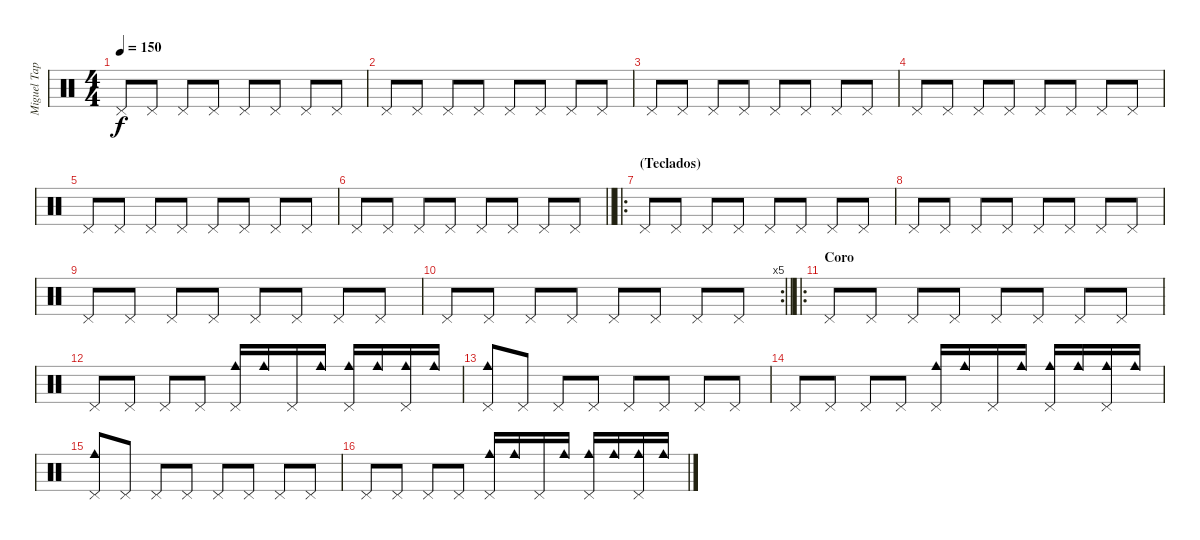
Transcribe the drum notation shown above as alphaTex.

\track ("Miguel Tapia" "Miguel Tap") {instrument percussion}
\staff {score}
\articulation defaults
\ts (4 4)
\tempo 150
\clef neutral
\ks c "Pedal Hi-Hat (hit)".8{dy f} "Pedal Hi-Hat (hit)".8 "Pedal Hi-Hat (hit)".8 "Pedal Hi-Hat (hit)".8 "Pedal Hi-Hat (hit)".8 "Pedal Hi-Hat (hit)".8 "Pedal Hi-Hat (hit)".8 "Pedal Hi-Hat (hit)".8
|
"Pedal Hi-Hat (hit)".8 "Pedal Hi-Hat (hit)".8 "Pedal Hi-Hat (hit)".8 "Pedal Hi-Hat (hit)".8 "Pedal Hi-Hat (hit)".8 "Pedal Hi-Hat (hit)".8 "Pedal Hi-Hat (hit)".8 "Pedal Hi-Hat (hit)".8 |
"Pedal Hi-Hat (hit)".8 "Pedal Hi-Hat (hit)".8 "Pedal Hi-Hat (hit)".8 "Pedal Hi-Hat (hit)".8 "Pedal Hi-Hat (hit)".8 "Pedal Hi-Hat (hit)".8 "Pedal Hi-Hat (hit)".8 "Pedal Hi-Hat (hit)".8 |
"Pedal Hi-Hat (hit)".8 "Pedal Hi-Hat (hit)".8 "Pedal Hi-Hat (hit)".8 "Pedal Hi-Hat (hit)".8 "Pedal Hi-Hat (hit)".8 "Pedal Hi-Hat (hit)".8 "Pedal Hi-Hat (hit)".8 "Pedal Hi-Hat (hit)".8 |
"Pedal Hi-Hat (hit)".8 "Pedal Hi-Hat (hit)".8 "Pedal Hi-Hat (hit)".8 "Pedal Hi-Hat (hit)".8 "Pedal Hi-Hat (hit)".8 "Pedal Hi-Hat (hit)".8 "Pedal Hi-Hat (hit)".8 "Pedal Hi-Hat (hit)".8 |
\barLineRight lightlight "Pedal Hi-Hat (hit)".8 "Pedal Hi-Hat (hit)".8 "Pedal Hi-Hat (hit)".8 "Pedal Hi-Hat (hit)".8 "Pedal Hi-Hat (hit)".8 "Pedal Hi-Hat (hit)".8 "Pedal Hi-Hat (hit)".8 "Pedal Hi-Hat (hit)".8
|
\ro
\section ("" "(Teclados)")
"Pedal Hi-Hat (hit)".8 "Pedal Hi-Hat (hit)".8 "Pedal Hi-Hat (hit)".8 "Pedal Hi-Hat (hit)".8 "Pedal Hi-Hat (hit)".8 "Pedal Hi-Hat (hit)".8 "Pedal Hi-Hat (hit)".8 "Pedal Hi-Hat (hit)".8 |
"Pedal Hi-Hat (hit)".8 "Pedal Hi-Hat (hit)".8 "Pedal Hi-Hat (hit)".8 "Pedal Hi-Hat (hit)".8 "Pedal Hi-Hat (hit)".8 "Pedal Hi-Hat (hit)".8 "Pedal Hi-Hat (hit)".8 "Pedal Hi-Hat (hit)".8 |
"Pedal Hi-Hat (hit)".8 "Pedal Hi-Hat (hit)".8 "Pedal Hi-Hat (hit)".8 "Pedal Hi-Hat (hit)".8 "Pedal Hi-Hat (hit)".8 "Pedal Hi-Hat (hit)".8 "Pedal Hi-Hat (hit)".8 "Pedal Hi-Hat (hit)".8 |
\rc 5
\barLineRight lightlight "Pedal Hi-Hat (hit)".8 "Pedal Hi-Hat (hit)".8 "Pedal Hi-Hat (hit)".8 "Pedal Hi-Hat (hit)".8 "Pedal Hi-Hat (hit)".8 "Pedal Hi-Hat (hit)".8 "Pedal Hi-Hat (hit)".8 "Pedal Hi-Hat (hit)".8
|
\ro
\section ("" "Coro")
"Pedal Hi-Hat (hit)".8 "Pedal Hi-Hat (hit)".8 "Pedal Hi-Hat (hit)".8 "Pedal Hi-Hat (hit)".8 "Pedal Hi-Hat (hit)".8 "Pedal Hi-Hat (hit)".8 "Pedal Hi-Hat (hit)".8 "Pedal Hi-Hat (hit)".8 |
"Pedal Hi-Hat (hit)".8 "Pedal Hi-Hat (hit)".8 "Pedal Hi-Hat (hit)".8 "Pedal Hi-Hat (hit)".8 ("Pedal Hi-Hat (hit)" "Cowbell medium (hit)").16 "Cowbell medium (hit)".16 "Pedal Hi-Hat (hit)".16 "Cowbell medium (hit)".16 ("Pedal Hi-Hat (hit)" "Cowbell medium (hit)").16 "Cowbell medium (hit)".16 ("Pedal Hi-Hat (hit)" "Cowbell medium (hit)").16 "Cowbell medium (hit)".16 |
("Pedal Hi-Hat (hit)" "Cowbell medium (hit)").8 "Pedal Hi-Hat (hit)".8 "Pedal Hi-Hat (hit)".8 "Pedal Hi-Hat (hit)".8 "Pedal Hi-Hat (hit)".8 "Pedal Hi-Hat (hit)".8 "Pedal Hi-Hat (hit)".8 "Pedal Hi-Hat (hit)".8 |
"Pedal Hi-Hat (hit)".8 "Pedal Hi-Hat (hit)".8 "Pedal Hi-Hat (hit)".8 "Pedal Hi-Hat (hit)".8 ("Pedal Hi-Hat (hit)" "Cowbell medium (hit)").16 "Cowbell medium (hit)".16 "Pedal Hi-Hat (hit)".16 "Cowbell medium (hit)".16 ("Pedal Hi-Hat (hit)" "Cowbell medium (hit)").16 "Cowbell medium (hit)".16 ("Pedal Hi-Hat (hit)" "Cowbell medium (hit)").16 "Cowbell medium (hit)".16 |
("Pedal Hi-Hat (hit)" "Cowbell medium (hit)").8 "Pedal Hi-Hat (hit)".8 "Pedal Hi-Hat (hit)".8 "Pedal Hi-Hat (hit)".8 "Pedal Hi-Hat (hit)".8 "Pedal Hi-Hat (hit)".8 "Pedal Hi-Hat (hit)".8 "Pedal Hi-Hat (hit)".8 |
"Pedal Hi-Hat (hit)".8 "Pedal Hi-Hat (hit)".8 "Pedal Hi-Hat (hit)".8 "Pedal Hi-Hat (hit)".8 ("Pedal Hi-Hat (hit)" "Cowbell medium (hit)").16 "Cowbell medium (hit)".16 "Pedal Hi-Hat (hit)".16 "Cowbell medium (hit)".16 ("Pedal Hi-Hat (hit)" "Cowbell medium (hit)").16 "Cowbell medium (hit)".16 ("Pedal Hi-Hat (hit)" "Cowbell medium (hit)").16 "Cowbell medium (hit)".16
